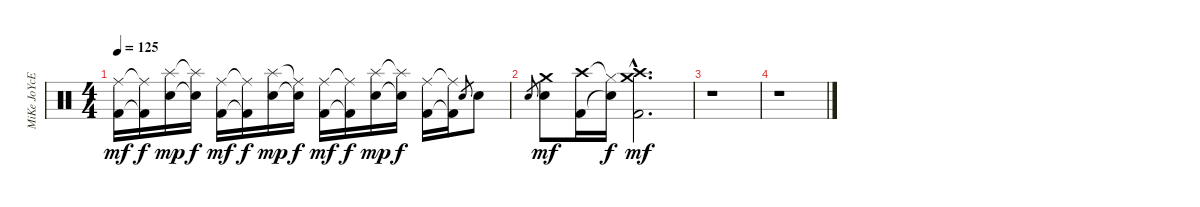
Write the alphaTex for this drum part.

\track ("MiKe JoYcE" "MiKe JoYcE") {instrument percussion}
\staff {score}
\articulation defaults
\ts (4 4)
\tempo 125
\clef neutral
\ks c
("Ride (middle)" "Kick (hit) 2").16{dy mf} ("Ride (middle)"{t} "Kick (hit) 2"{t}).16{dy f} ("Splash (hit)" "Electric Snare (hit)").16{dy mp} ("Splash (hit)"{t} "Electric Snare (hit)"{t}).16{dy f} ("Ride (middle)" "Kick (hit) 2").16{dy mf} ("Ride (middle)"{t} "Kick (hit) 2"{t}).16{dy f} ("Splash (hit)" "Electric Snare (hit)").16{dy mp} ("Ride (middle)"{t} "Electric Snare (hit)"{t}).16{dy f} ("Ride (middle)" "Kick (hit) 2").16{dy mf} ("Ride (middle)"{t} "Kick (hit) 2"{t}).16{dy f} ("Splash (hit)" "Electric Snare (hit)").16{dy mp} ("Splash (hit)"{t} "Electric Snare (hit)"{t}).16{dy f} ("Ride (middle)" "Kick (hit) 2").16 ("Ride (middle)"{t} "Kick (hit) 2"{t}).16 "Electric Snare (hit)".8{gr} "Electric Snare (hit)".8 |
"Electric Snare (hit)".8{gr} ("Crash medium (hit)" "Electric Snare (hit)").8{dy mf} ("Crash high (hit)" "Kick (hit) 2").16 ("Hi-Hat (closed)"{t} "Electric Snare (hit)"{t}).16{dy f} ("Crash medium (hit)"{hac} "Crash high (hit)"{hac} "Kick (hit) 2"{hac}).2{d dy mf} |
r.1 |
r.1
